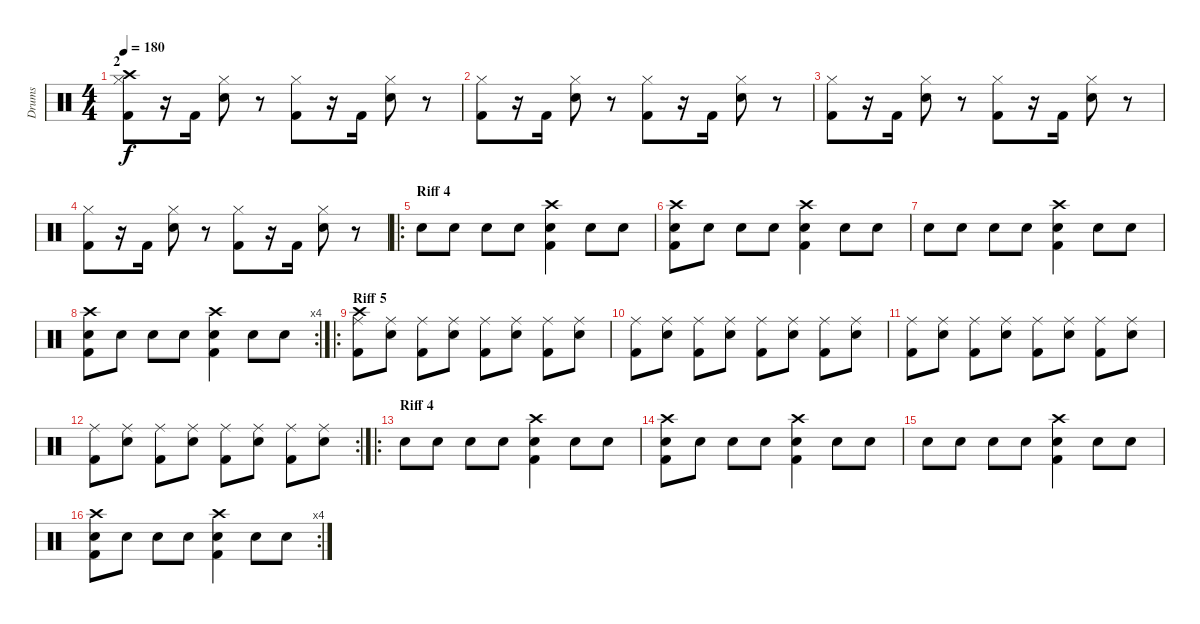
\track ("Drums" "Drums") {instrument percussion}
\staff {score}
\articulation defaults
\ts (4 4)
\section ("" "2")
\tempo 180
\clef neutral
\ks c
("Hi-Hat (closed)" "Crash high (hit)" "Kick (hit) 2").8{dy f} r.16 "Kick (hit) 2".16 ("Hi-Hat (closed)" "Snare (hit) 2").8 r.8 ("Hi-Hat (closed)" "Kick (hit) 2").8 r.16 "Kick (hit) 2".16 ("Hi-Hat (closed)" "Snare (hit) 2").8 r.8 |
("Hi-Hat (closed)" "Kick (hit) 2").8 r.16 "Kick (hit) 2".16 ("Hi-Hat (closed)" "Snare (hit) 2").8 r.8 ("Hi-Hat (closed)" "Kick (hit) 2").8 r.16 "Kick (hit) 2".16 ("Hi-Hat (closed)" "Snare (hit) 2").8 r.8 |
("Hi-Hat (closed)" "Kick (hit) 2").8 r.16 "Kick (hit) 2".16 ("Hi-Hat (closed)" "Snare (hit) 2").8 r.8 ("Hi-Hat (closed)" "Kick (hit) 2").8 r.16 "Kick (hit) 2".16 ("Hi-Hat (closed)" "Snare (hit) 2").8 r.8 |
("Hi-Hat (closed)" "Kick (hit) 2").8 r.16 "Kick (hit) 2".16 ("Hi-Hat (closed)" "Snare (hit) 2").8 r.8 ("Hi-Hat (closed)" "Kick (hit) 2").8 r.16 "Kick (hit) 2".16 ("Hi-Hat (closed)" "Snare (hit) 2").8 r.8 |
\ro
\section ("" "Riff 4")
"Snare (hit) 2".8 "Snare (hit) 2".8 "Snare (hit) 2".8 "Snare (hit) 2".8 ("Crash high (hit)" "Snare (hit) 2" "Kick (hit) 2").4 "Snare (hit) 2".8 "Snare (hit) 2".8 |
("Crash high (hit)" "Snare (hit) 2" "Kick (hit) 2").8 "Snare (hit) 2".8 "Snare (hit) 2".8 "Snare (hit) 2".8 ("Crash high (hit)" "Snare (hit) 2" "Kick (hit) 2").4 "Snare (hit) 2".8 "Snare (hit) 2".8 |
"Snare (hit) 2".8 "Snare (hit) 2".8 "Snare (hit) 2".8 "Snare (hit) 2".8 ("Crash high (hit)" "Snare (hit) 2" "Kick (hit) 2").4 "Snare (hit) 2".8 "Snare (hit) 2".8 |
\rc 4
("Crash high (hit)" "Snare (hit) 2" "Kick (hit) 2").8 "Snare (hit) 2".8 "Snare (hit) 2".8 "Snare (hit) 2".8 ("Crash high (hit)" "Snare (hit) 2" "Kick (hit) 2").4 "Snare (hit) 2".8 "Snare (hit) 2".8 |
\ro
\section ("" "Riff 5")
("Ride (middle)" "Crash high (hit)" "Kick (hit) 2").8 ("Ride (middle)" "Snare (hit) 2").8 ("Ride (middle)" "Kick (hit) 2").8 ("Ride (middle)" "Snare (hit) 2").8 ("Ride (middle)" "Kick (hit) 2").8 ("Ride (middle)" "Snare (hit) 2").8 ("Ride (middle)" "Kick (hit) 2").8 ("Ride (middle)" "Snare (hit) 2").8 |
("Ride (middle)" "Kick (hit) 2").8 ("Ride (middle)" "Snare (hit) 2").8 ("Ride (middle)" "Kick (hit) 2").8 ("Ride (middle)" "Snare (hit) 2").8 ("Ride (middle)" "Kick (hit) 2").8 ("Ride (middle)" "Snare (hit) 2").8 ("Ride (middle)" "Kick (hit) 2").8 ("Ride (middle)" "Snare (hit) 2").8 |
("Ride (middle)" "Kick (hit) 2").8 ("Ride (middle)" "Snare (hit) 2").8 ("Ride (middle)" "Kick (hit) 2").8 ("Ride (middle)" "Snare (hit) 2").8 ("Ride (middle)" "Kick (hit) 2").8 ("Ride (middle)" "Snare (hit) 2").8 ("Ride (middle)" "Kick (hit) 2").8 ("Ride (middle)" "Snare (hit) 2").8 |
\rc 2
("Ride (middle)" "Kick (hit) 2").8 ("Ride (middle)" "Snare (hit) 2").8 ("Ride (middle)" "Kick (hit) 2").8 ("Ride (middle)" "Snare (hit) 2").8 ("Ride (middle)" "Kick (hit) 2").8 ("Ride (middle)" "Snare (hit) 2").8 ("Ride (middle)" "Kick (hit) 2").8 ("Ride (middle)" "Snare (hit) 2").8 |
\ro
\section ("" "Riff 4")
"Snare (hit) 2".8 "Snare (hit) 2".8 "Snare (hit) 2".8 "Snare (hit) 2".8 ("Crash high (hit)" "Snare (hit) 2" "Kick (hit) 2").4 "Snare (hit) 2".8 "Snare (hit) 2".8 |
("Crash high (hit)" "Snare (hit) 2" "Kick (hit) 2").8 "Snare (hit) 2".8 "Snare (hit) 2".8 "Snare (hit) 2".8 ("Crash high (hit)" "Snare (hit) 2" "Kick (hit) 2").4 "Snare (hit) 2".8 "Snare (hit) 2".8 |
"Snare (hit) 2".8 "Snare (hit) 2".8 "Snare (hit) 2".8 "Snare (hit) 2".8 ("Crash high (hit)" "Snare (hit) 2" "Kick (hit) 2").4 "Snare (hit) 2".8 "Snare (hit) 2".8 |
\rc 4
("Crash high (hit)" "Snare (hit) 2" "Kick (hit) 2").8 "Snare (hit) 2".8 "Snare (hit) 2".8 "Snare (hit) 2".8 ("Crash high (hit)" "Snare (hit) 2" "Kick (hit) 2").4 "Snare (hit) 2".8 "Snare (hit) 2".8
